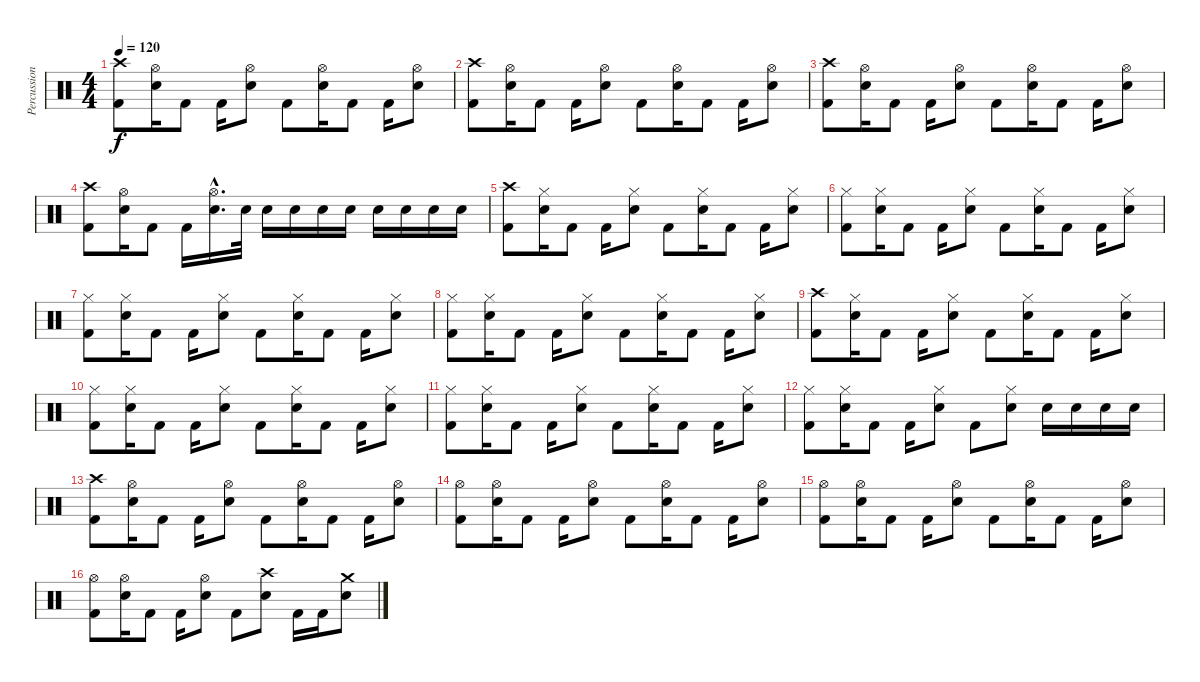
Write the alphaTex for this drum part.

\track ("Percussion" "Percussion") {instrument percussion}
\staff {score}
\articulation defaults
\ts (4 4)
\tempo 120
\clef neutral
\ks c
("Crash high (hit)" "Kick (hit) 2").8{dy f} ("Hi-Hat (open)" "Snare (hit) 2").16 "Kick (hit) 2".8 "Kick (hit) 2".16 ("Hi-Hat (open)" "Snare (hit) 2").8 "Kick (hit) 2".8 ("Hi-Hat (open)" "Snare (hit) 2").16 "Kick (hit) 2".8 "Kick (hit) 2".16 ("Hi-Hat (open)" "Snare (hit) 2").8 |
("Crash high (hit)" "Kick (hit) 2").8 ("Hi-Hat (open)" "Snare (hit) 2").16 "Kick (hit) 2".8 "Kick (hit) 2".16 ("Hi-Hat (open)" "Snare (hit) 2").8 "Kick (hit) 2".8 ("Hi-Hat (open)" "Snare (hit) 2").16 "Kick (hit) 2".8 "Kick (hit) 2".16 ("Hi-Hat (open)" "Snare (hit) 2").8 |
("Crash high (hit)" "Kick (hit) 2").8 ("Hi-Hat (open)" "Snare (hit) 2").16 "Kick (hit) 2".8 "Kick (hit) 2".16 ("Hi-Hat (open)" "Snare (hit) 2").8 "Kick (hit) 2".8 ("Hi-Hat (open)" "Snare (hit) 2").16 "Kick (hit) 2".8 "Kick (hit) 2".16 ("Hi-Hat (open)" "Snare (hit) 2").8 |
("Crash high (hit)" "Kick (hit) 2").8 ("Hi-Hat (open)" "Snare (hit) 2").16 "Kick (hit) 2".8 "Kick (hit) 2".16 ("Hi-Hat (open)"{hac} "Snare (hit) 2"{hac}).16{d} "Snare (hit) 2".32 "Snare (hit) 2".16 "Snare (hit) 2".16 "Snare (hit) 2".16 "Snare (hit) 2".16 "Snare (hit) 2".16 "Snare (hit) 2".16 "Snare (hit) 2".16 "Snare (hit) 2".16 |
("Crash high (hit)" "Kick (hit) 2").8 ("Hi-Hat (closed)" "Snare (hit) 2").16 "Kick (hit) 2".8 "Kick (hit) 2".16 ("Hi-Hat (closed)" "Snare (hit) 2").8 "Kick (hit) 2".8 ("Hi-Hat (closed)" "Snare (hit) 2").16 "Kick (hit) 2".8 "Kick (hit) 2".16 ("Hi-Hat (closed)" "Snare (hit) 2").8 |
("Hi-Hat (closed)" "Kick (hit) 2").8 ("Hi-Hat (closed)" "Snare (hit) 2").16 "Kick (hit) 2".8 "Kick (hit) 2".16 ("Hi-Hat (closed)" "Snare (hit) 2").8 "Kick (hit) 2".8 ("Hi-Hat (closed)" "Snare (hit) 2").16 "Kick (hit) 2".8 "Kick (hit) 2".16 ("Hi-Hat (closed)" "Snare (hit) 2").8 |
("Hi-Hat (closed)" "Kick (hit) 2").8 ("Hi-Hat (closed)" "Snare (hit) 2").16 "Kick (hit) 2".8 "Kick (hit) 2".16 ("Hi-Hat (closed)" "Snare (hit) 2").8 "Kick (hit) 2".8 ("Hi-Hat (closed)" "Snare (hit) 2").16 "Kick (hit) 2".8 "Kick (hit) 2".16 ("Hi-Hat (closed)" "Snare (hit) 2").8 |
("Hi-Hat (closed)" "Kick (hit) 2").8 ("Hi-Hat (closed)" "Snare (hit) 2").16 "Kick (hit) 2".8 "Kick (hit) 2".16 ("Hi-Hat (closed)" "Snare (hit) 2").8 "Kick (hit) 2".8 ("Hi-Hat (closed)" "Snare (hit) 2").16 "Kick (hit) 2".8 "Kick (hit) 2".16 ("Hi-Hat (closed)" "Snare (hit) 2").8 |
("Crash high (hit)" "Kick (hit) 2").8 ("Hi-Hat (closed)" "Snare (hit) 2").16 "Kick (hit) 2".8 "Kick (hit) 2".16 ("Hi-Hat (closed)" "Snare (hit) 2").8 "Kick (hit) 2".8 ("Hi-Hat (closed)" "Snare (hit) 2").16 "Kick (hit) 2".8 "Kick (hit) 2".16 ("Hi-Hat (closed)" "Snare (hit) 2").8 |
("Hi-Hat (closed)" "Kick (hit) 2").8 ("Hi-Hat (closed)" "Snare (hit) 2").16 "Kick (hit) 2".8 "Kick (hit) 2".16 ("Hi-Hat (closed)" "Snare (hit) 2").8 "Kick (hit) 2".8 ("Hi-Hat (closed)" "Snare (hit) 2").16 "Kick (hit) 2".8 "Kick (hit) 2".16 ("Hi-Hat (closed)" "Snare (hit) 2").8 |
("Hi-Hat (closed)" "Kick (hit) 2").8 ("Hi-Hat (closed)" "Snare (hit) 2").16 "Kick (hit) 2".8 "Kick (hit) 2".16 ("Hi-Hat (closed)" "Snare (hit) 2").8 "Kick (hit) 2".8 ("Hi-Hat (closed)" "Snare (hit) 2").16 "Kick (hit) 2".8 "Kick (hit) 2".16 ("Hi-Hat (closed)" "Snare (hit) 2").8 |
("Hi-Hat (closed)" "Kick (hit) 2").8 ("Hi-Hat (closed)" "Snare (hit) 2").16 "Kick (hit) 2".8 "Kick (hit) 2".16 ("Hi-Hat (closed)" "Snare (hit) 2").8 "Kick (hit) 2".8 ("Hi-Hat (closed)" "Snare (hit) 2").8 "Snare (hit) 2".16 "Snare (hit) 2".16 "Snare (hit) 2".16 "Snare (hit) 2".16 |
("Crash high (hit)" "Kick (hit) 2").8 ("Hi-Hat (open)" "Snare (hit) 2").16 "Kick (hit) 2".8 "Kick (hit) 2".16 ("Hi-Hat (open)" "Snare (hit) 2").8 "Kick (hit) 2".8 ("Hi-Hat (open)" "Snare (hit) 2").16 "Kick (hit) 2".8 "Kick (hit) 2".16 ("Hi-Hat (open)" "Snare (hit) 2").8 |
("Hi-Hat (open)" "Kick (hit) 2").8 ("Hi-Hat (open)" "Snare (hit) 2").16 "Kick (hit) 2".8 "Kick (hit) 2".16 ("Hi-Hat (open)" "Snare (hit) 2").8 "Kick (hit) 2".8 ("Hi-Hat (open)" "Snare (hit) 2").16 "Kick (hit) 2".8 "Kick (hit) 2".16 ("Hi-Hat (open)" "Snare (hit) 2").8 |
("Hi-Hat (open)" "Kick (hit) 2").8 ("Hi-Hat (open)" "Snare (hit) 2").16 "Kick (hit) 2".8 "Kick (hit) 2".16 ("Hi-Hat (open)" "Snare (hit) 2").8 "Kick (hit) 2".8 ("Hi-Hat (open)" "Snare (hit) 2").16 "Kick (hit) 2".8 "Kick (hit) 2".16 ("Hi-Hat (open)" "Snare (hit) 2").8 |
("Hi-Hat (open)" "Kick (hit) 2").8 ("Hi-Hat (open)" "Snare (hit) 2").16 "Kick (hit) 2".8 "Kick (hit) 2".16 ("Hi-Hat (open)" "Snare (hit) 2").8 "Kick (hit) 2".8 ("Crash high (hit)" "Snare (hit) 2").8 "Kick (hit) 2".16 "Kick (hit) 2".16 ("Crash medium (hit)" "Snare (hit) 2").8
